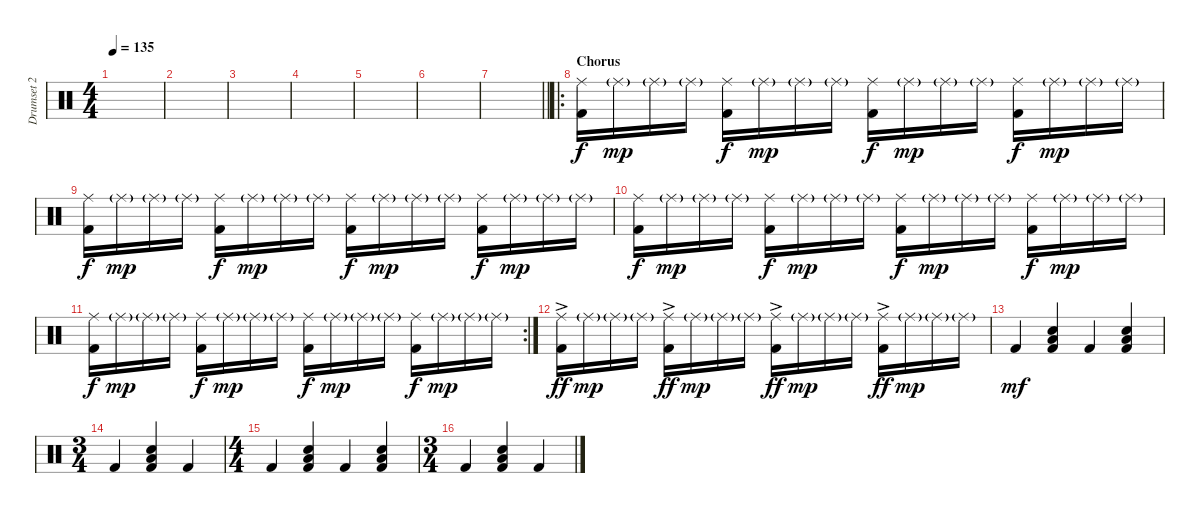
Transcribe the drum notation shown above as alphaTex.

\track ("Drumset 2" "Drumset 2") {instrument percussion}
\staff {score}
\articulation defaults
\ts (4 4)
\tempo 135
\clef neutral
\ks c
|
|
|
|
|
|
\barLineRight lightlight
|
\ro
\section ("" "Chorus")
("Ride (middle)" "Kick (hit) 2").16{dy f} "Ride (middle)"{g}.16{dy mp} "Ride (middle)"{g}.16 "Ride (middle)"{g}.16 ("Ride (middle)" "Kick (hit) 2").16{dy f} "Ride (middle)"{g}.16{dy mp} "Ride (middle)"{g}.16 "Ride (middle)"{g}.16 ("Ride (middle)" "Kick (hit) 2").16{dy f} "Ride (middle)"{g}.16{dy mp} "Ride (middle)"{g}.16 "Ride (middle)"{g}.16 ("Ride (middle)" "Kick (hit) 2").16{dy f} "Ride (middle)"{g}.16{dy mp} "Ride (middle)"{g}.16 "Ride (middle)"{g}.16 |
("Ride (middle)" "Kick (hit) 2").16{dy f} "Ride (middle)"{g}.16{dy mp} "Ride (middle)"{g}.16 "Ride (middle)"{g}.16 ("Ride (middle)" "Kick (hit) 2").16{dy f} "Ride (middle)"{g}.16{dy mp} "Ride (middle)"{g}.16 "Ride (middle)"{g}.16 ("Ride (middle)" "Kick (hit) 2").16{dy f} "Ride (middle)"{g}.16{dy mp} "Ride (middle)"{g}.16 "Ride (middle)"{g}.16 ("Ride (middle)" "Kick (hit) 2").16{dy f} "Ride (middle)"{g}.16{dy mp} "Ride (middle)"{g}.16 "Ride (middle)"{g}.16 |
("Ride (middle)" "Kick (hit) 2").16{dy f} "Ride (middle)"{g}.16{dy mp} "Ride (middle)"{g}.16 "Ride (middle)"{g}.16 ("Ride (middle)" "Kick (hit) 2").16{dy f} "Ride (middle)"{g}.16{dy mp} "Ride (middle)"{g}.16 "Ride (middle)"{g}.16 ("Ride (middle)" "Kick (hit) 2").16{dy f} "Ride (middle)"{g}.16{dy mp} "Ride (middle)"{g}.16 "Ride (middle)"{g}.16 ("Ride (middle)" "Kick (hit) 2").16{dy f} "Ride (middle)"{g}.16{dy mp} "Ride (middle)"{g}.16 "Ride (middle)"{g}.16 |
\rc 2
("Ride (middle)" "Kick (hit) 2").16{dy f} "Ride (middle)"{g}.16{dy mp} "Ride (middle)"{g}.16 "Ride (middle)"{g}.16 ("Ride (middle)" "Kick (hit) 2").16{dy f} "Ride (middle)"{g}.16{dy mp} "Ride (middle)"{g}.16 "Ride (middle)"{g}.16 ("Ride (middle)" "Kick (hit) 2").16{dy f} "Ride (middle)"{g}.16{dy mp} "Ride (middle)"{g}.16 "Ride (middle)"{g}.16 ("Ride (middle)" "Kick (hit) 2").16{dy f} "Ride (middle)"{g}.16{dy mp} "Ride (middle)"{g}.16 "Ride (middle)"{g}.16 |
("Ride (middle)"{ac} "Kick (hit) 2"{ac}).16{dy ff} "Ride (middle)"{g}.16{dy mp} "Ride (middle)"{g}.16 "Ride (middle)"{g}.16 ("Ride (middle)"{ac} "Kick (hit) 2"{ac}).16{dy ff} "Ride (middle)"{g}.16{dy mp} "Ride (middle)"{g}.16 "Ride (middle)"{g}.16 ("Ride (middle)"{ac} "Kick (hit) 2"{ac}).16{dy ff} "Ride (middle)"{g}.16{dy mp} "Ride (middle)"{g}.16 "Ride (middle)"{g}.16 ("Ride (middle)"{ac} "Kick (hit) 2"{ac}).16{dy ff} "Ride (middle)"{g}.16{dy mp} "Ride (middle)"{g}.16 "Ride (middle)"{g}.16 |
"Kick (hit) 2".4{dy mf} ("Low Floor Tom (hit)" "Electric Snare (hit)" "Kick (hit) 2").4 "Kick (hit) 2".4 ("Low Floor Tom (hit)" "Electric Snare (hit)" "Kick (hit) 2").4 |
\ts (3 4)
"Kick (hit) 2".4 ("Low Floor Tom (hit)" "Electric Snare (hit)" "Kick (hit) 2").4 "Kick (hit) 2".4 |
\ts (4 4)
"Kick (hit) 2".4 ("Low Floor Tom (hit)" "Electric Snare (hit)" "Kick (hit) 2").4 "Kick (hit) 2".4 ("Low Floor Tom (hit)" "Electric Snare (hit)" "Kick (hit) 2").4 |
\ts (3 4)
"Kick (hit) 2".4 ("Low Floor Tom (hit)" "Electric Snare (hit)" "Kick (hit) 2").4 "Kick (hit) 2".4
